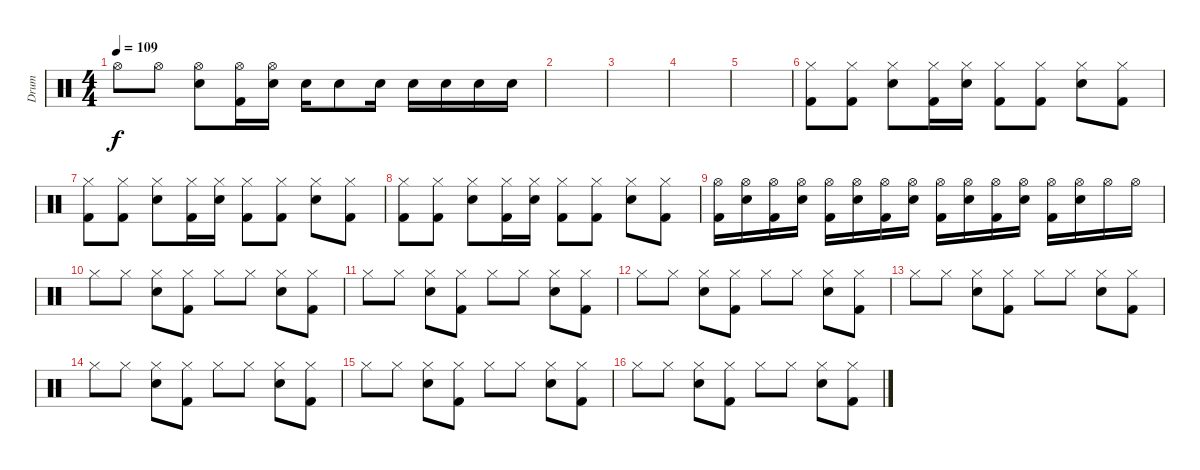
\track ("Drum" "Drum") {instrument percussion}
\staff {score}
\articulation defaults
\ts (4 4)
\tempo 109
\clef neutral
\ks c "Hi-Hat (open)".8{dy f} "Hi-Hat (open)".8
("Electric Snare (hit)" "Hi-Hat (open)").8 ("Kick (hit) 2" "Hi-Hat (open)").16 ("Electric Snare (hit)" "Hi-Hat (open)").16 "Electric Snare (hit)".16 "Electric Snare (hit)".8 "Electric Snare (hit)".16 "Electric Snare (hit)".16 "Electric Snare (hit)".16 "Electric Snare (hit)".16 "Electric Snare (hit)".16 |
|
|
|
|
("Kick (hit) 2" "Hi-Hat (closed)").8 ("Kick (hit) 2" "Hi-Hat (closed)").8 ("Electric Snare (hit)" "Hi-Hat (closed)").8 ("Kick (hit) 2" "Hi-Hat (closed)").16 ("Electric Snare (hit)" "Hi-Hat (closed)").16 ("Kick (hit) 2" "Hi-Hat (closed)").8 ("Kick (hit) 2" "Hi-Hat (closed)").8 ("Electric Snare (hit)" "Hi-Hat (closed)").8 ("Kick (hit) 2" "Hi-Hat (closed)").8 |
("Kick (hit) 2" "Hi-Hat (closed)").8 ("Kick (hit) 2" "Hi-Hat (closed)").8 ("Electric Snare (hit)" "Hi-Hat (closed)").8 ("Kick (hit) 2" "Hi-Hat (closed)").16 ("Electric Snare (hit)" "Hi-Hat (closed)").16 ("Kick (hit) 2" "Hi-Hat (closed)").8 ("Kick (hit) 2" "Hi-Hat (closed)").8 ("Electric Snare (hit)" "Hi-Hat (closed)").8 ("Kick (hit) 2" "Hi-Hat (closed)").8 |
("Kick (hit) 2" "Hi-Hat (closed)").8 ("Kick (hit) 2" "Hi-Hat (closed)").8 ("Electric Snare (hit)" "Hi-Hat (closed)").8 ("Kick (hit) 2" "Hi-Hat (closed)").16 ("Electric Snare (hit)" "Hi-Hat (closed)").16 ("Kick (hit) 2" "Hi-Hat (closed)").8 ("Kick (hit) 2" "Hi-Hat (closed)").8 ("Electric Snare (hit)" "Hi-Hat (closed)").8 ("Kick (hit) 2" "Hi-Hat (closed)").8 |
("Kick (hit) 2" "Hi-Hat (open)").16 ("Electric Snare (hit)" "Hi-Hat (open)").16 ("Kick (hit) 2" "Hi-Hat (open)").16 ("Electric Snare (hit)" "Hi-Hat (open)").16 ("Kick (hit) 2" "Hi-Hat (open)").16 ("Electric Snare (hit)" "Hi-Hat (open)").16 ("Kick (hit) 2" "Hi-Hat (open)").16 ("Electric Snare (hit)" "Hi-Hat (open)").16 ("Kick (hit) 2" "Hi-Hat (open)").16 ("Electric Snare (hit)" "Hi-Hat (open)").16 ("Kick (hit) 2" "Hi-Hat (open)").16 ("Electric Snare (hit)" "Hi-Hat (open)").16 ("Kick (hit) 2" "Hi-Hat (open)").16 ("Electric Snare (hit)" "Hi-Hat (open)").16 "Hi-Hat (open)".16 "Hi-Hat (open)".16 |
"Hi-Hat (closed)".8 "Hi-Hat (closed)".8 ("Electric Snare (hit)" "Hi-Hat (closed)").8 ("Kick (hit) 2" "Hi-Hat (closed)").8 "Hi-Hat (closed)".8 "Hi-Hat (closed)".8 ("Electric Snare (hit)" "Hi-Hat (closed)").8 ("Kick (hit) 2" "Hi-Hat (closed)").8 |
"Hi-Hat (closed)".8 "Hi-Hat (closed)".8 ("Electric Snare (hit)" "Hi-Hat (closed)").8 ("Kick (hit) 2" "Hi-Hat (closed)").8 "Hi-Hat (closed)".8 "Hi-Hat (closed)".8 ("Electric Snare (hit)" "Hi-Hat (closed)").8 ("Kick (hit) 2" "Hi-Hat (closed)").8 |
"Hi-Hat (closed)".8 "Hi-Hat (closed)".8 ("Electric Snare (hit)" "Hi-Hat (closed)").8 ("Kick (hit) 2" "Hi-Hat (closed)").8 "Hi-Hat (closed)".8 "Hi-Hat (closed)".8 ("Electric Snare (hit)" "Hi-Hat (closed)").8 ("Kick (hit) 2" "Hi-Hat (closed)").8 |
"Hi-Hat (closed)".8 "Hi-Hat (closed)".8 ("Electric Snare (hit)" "Hi-Hat (closed)").8 ("Kick (hit) 2" "Hi-Hat (closed)").8 "Hi-Hat (closed)".8 "Hi-Hat (closed)".8 ("Electric Snare (hit)" "Hi-Hat (closed)").8 ("Kick (hit) 2" "Hi-Hat (closed)").8 |
"Hi-Hat (closed)".8 "Hi-Hat (closed)".8 ("Electric Snare (hit)" "Hi-Hat (closed)").8 ("Kick (hit) 2" "Hi-Hat (closed)").8 "Hi-Hat (closed)".8 "Hi-Hat (closed)".8 ("Electric Snare (hit)" "Hi-Hat (closed)").8 ("Kick (hit) 2" "Hi-Hat (closed)").8 |
"Hi-Hat (closed)".8 "Hi-Hat (closed)".8 ("Electric Snare (hit)" "Hi-Hat (closed)").8 ("Kick (hit) 2" "Hi-Hat (closed)").8 "Hi-Hat (closed)".8 "Hi-Hat (closed)".8 ("Electric Snare (hit)" "Hi-Hat (closed)").8 ("Kick (hit) 2" "Hi-Hat (closed)").8 |
"Hi-Hat (closed)".8 "Hi-Hat (closed)".8 ("Electric Snare (hit)" "Hi-Hat (closed)").8 ("Kick (hit) 2" "Hi-Hat (closed)").8 "Hi-Hat (closed)".8 "Hi-Hat (closed)".8 ("Electric Snare (hit)" "Hi-Hat (closed)").8 ("Kick (hit) 2" "Hi-Hat (closed)").8
